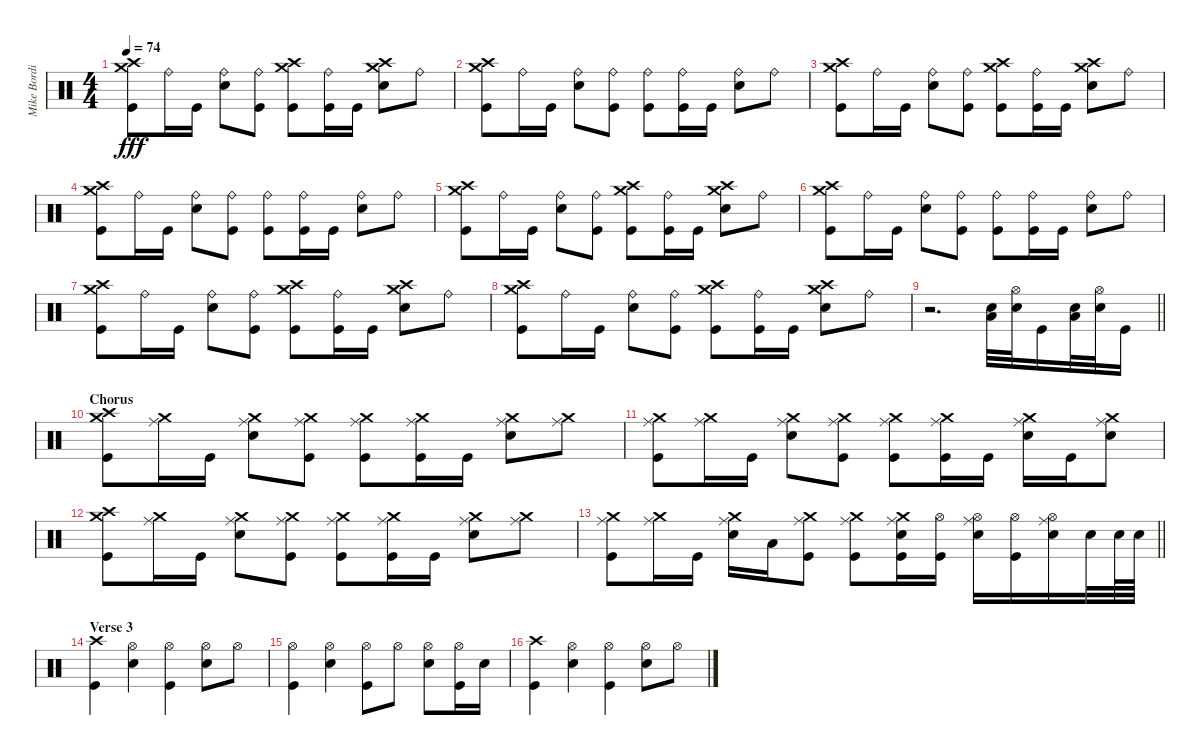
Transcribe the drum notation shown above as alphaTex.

\track ("Mike Bordin" "Mike Bordi") {instrument percussion}
\staff {score}
\articulation defaults
\ts (4 4)
\tempo 74
\clef neutral
\ks c
("Crash medium (hit)" "Crash high (hit)" "Kick (hit)").8{dy fff} "Ride (bell)".16 "Kick (hit)".16 ("Ride (bell)" "Snare (hit) 2").8 ("Ride (bell)" "Kick (hit)").8 ("Crash medium (hit)" "Crash high (hit)" "Kick (hit)").8 ("Ride (bell)" "Kick (hit)").16 "Kick (hit)".16 ("Crash medium (hit)" "Crash high (hit)" "Snare (hit) 2").8 "Ride (bell)".8 |
("Crash medium (hit)" "Crash high (hit)" "Kick (hit)").8 "Ride (bell)".16 "Kick (hit)".16 ("Ride (bell)" "Snare (hit) 2").8 ("Ride (bell)" "Kick (hit)").8 ("Ride (bell)" "Kick (hit)").8 ("Ride (bell)" "Kick (hit)").16 "Kick (hit)".16 ("Ride (bell)" "Snare (hit) 2").8 "Ride (bell)".8 |
("Crash medium (hit)" "Crash high (hit)" "Kick (hit)").8 "Ride (bell)".16 "Kick (hit)".16 ("Ride (bell)" "Snare (hit) 2").8 ("Ride (bell)" "Kick (hit)").8 ("Crash medium (hit)" "Crash high (hit)" "Kick (hit)").8 ("Ride (bell)" "Kick (hit)").16 "Kick (hit)".16 ("Crash medium (hit)" "Crash high (hit)" "Snare (hit) 2").8 "Ride (bell)".8 |
("Crash medium (hit)" "Crash high (hit)" "Kick (hit)").8 "Ride (bell)".16 "Kick (hit)".16 ("Ride (bell)" "Snare (hit) 2").8 ("Ride (bell)" "Kick (hit)").8 ("Ride (bell)" "Kick (hit)").8 ("Ride (bell)" "Kick (hit)").16 "Kick (hit)".16 ("Ride (bell)" "Snare (hit) 2").8 "Ride (bell)".8 |
("Crash medium (hit)" "Crash high (hit)" "Kick (hit)").8 "Ride (bell)".16 "Kick (hit)".16 ("Ride (bell)" "Snare (hit) 2").8 ("Ride (bell)" "Kick (hit)").8 ("Crash medium (hit)" "Crash high (hit)" "Kick (hit)").8 ("Ride (bell)" "Kick (hit)").16 "Kick (hit)".16 ("Crash medium (hit)" "Crash high (hit)" "Snare (hit) 2").8 "Ride (bell)".8 |
("Crash medium (hit)" "Crash high (hit)" "Kick (hit)").8 "Ride (bell)".16 "Kick (hit)".16 ("Ride (bell)" "Snare (hit) 2").8 ("Ride (bell)" "Kick (hit)").8 ("Ride (bell)" "Kick (hit)").8 ("Ride (bell)" "Kick (hit)").16 "Kick (hit)".16 ("Ride (bell)" "Snare (hit) 2").8 "Ride (bell)".8 |
("Crash medium (hit)" "Crash high (hit)" "Kick (hit)").8 "Ride (bell)".16 "Kick (hit)".16 ("Ride (bell)" "Snare (hit) 2").8 ("Ride (bell)" "Kick (hit)").8 ("Crash medium (hit)" "Crash high (hit)" "Kick (hit)").8 ("Ride (bell)" "Kick (hit)").16 "Kick (hit)".16 ("Crash medium (hit)" "Crash high (hit)" "Snare (hit) 2").8 "Ride (bell)".8 |
("Crash medium (hit)" "Crash high (hit)" "Kick (hit)").8 "Ride (bell)".16 "Kick (hit)".16 ("Ride (bell)" "Snare (hit) 2").8 ("Ride (bell)" "Kick (hit)").8 ("Crash medium (hit)" "Crash high (hit)" "Kick (hit)").8 ("Ride (bell)" "Kick (hit)").16 "Kick (hit)".16 ("Crash medium (hit)" "Crash high (hit)" "Snare (hit) 2").8 "Ride (bell)".8 |
\barLineRight lightlight
r.2{d} ("Snare (hit) 2" "Low Tom (hit)").32 ("Hi-Hat (open)" "Snare (hit) 2").32 "Kick (hit)".16 ("Snare (hit) 2" "Low Floor Tom (hit)").32 ("Hi-Hat (open)" "Snare (hit) 2").32 "Kick (hit)".16 |
\section ("" "Chorus")
("Crash medium (hit)" "Crash high (hit)" "Kick (hit)").8 ("Crash medium (hit)" "Ride (middle)").16 "Kick (hit)".16 ("Crash medium (hit)" "Ride (middle)" "Snare (hit) 2").8 ("Crash medium (hit)" "Ride (middle)" "Kick (hit)").8 ("Crash medium (hit)" "Ride (middle)" "Kick (hit)").8 ("Crash medium (hit)" "Ride (middle)" "Kick (hit)").16 "Kick (hit)".16 ("Crash medium (hit)" "Ride (middle)" "Snare (hit) 2").8 ("Crash medium (hit)" "Ride (middle)").8 |
("Crash medium (hit)" "Ride (middle)" "Kick (hit)").8 ("Crash medium (hit)" "Ride (middle)").16 "Kick (hit)".16 ("Crash medium (hit)" "Ride (middle)" "Snare (hit) 2").8 ("Crash medium (hit)" "Ride (middle)" "Kick (hit)").8 ("Crash medium (hit)" "Ride (middle)" "Kick (hit)").8 ("Crash medium (hit)" "Ride (middle)" "Kick (hit)").16 "Kick (hit)".16 ("Crash medium (hit)" "Ride (middle)" "Snare (hit) 2").16 "Kick (hit)".16 ("Crash medium (hit)" "Ride (middle)" "Snare (hit) 2").8 |
("Crash medium (hit)" "Crash high (hit)" "Kick (hit)").8 ("Crash medium (hit)" "Ride (middle)").16 "Kick (hit)".16 ("Crash medium (hit)" "Ride (middle)" "Snare (hit) 2").8 ("Crash medium (hit)" "Ride (middle)" "Kick (hit)").8 ("Crash medium (hit)" "Ride (middle)" "Kick (hit)").8 ("Crash medium (hit)" "Ride (middle)" "Kick (hit)").16 "Kick (hit)".16 ("Crash medium (hit)" "Ride (middle)" "Snare (hit) 2").8 ("Crash medium (hit)" "Ride (middle)").8 |
\barLineRight lightlight
("Crash medium (hit)" "Ride (middle)" "Kick (hit)").8 ("Crash medium (hit)" "Ride (middle)").16 "Kick (hit)".16 ("Crash medium (hit)" "Ride (middle)" "Snare (hit) 2").16 "Low Tom (hit)".16 ("Crash medium (hit)" "Ride (middle)" "Kick (hit)").8 ("Crash medium (hit)" "Ride (middle)" "Kick (hit)").8 ("Crash medium (hit)" "Ride (middle)" "Snare (hit) 2" "Kick (hit)").16 ("Hi-Hat (open)" "Kick (hit)").16 ("Hi-Hat (open)" "Ride (middle)" "Snare (hit) 2").16 ("Hi-Hat (open)" "Kick (hit)").16 ("Hi-Hat (open)" "Ride (middle)" "Snare (hit) 2").16 "Snare (hit) 2".32 "Snare (hit) 2".64 "Snare (hit) 2".64 |
\section ("" "Verse 3")
("Crash high (hit)" "Kick (hit)").4 ("Hi-Hat (open)" "Snare (hit) 2").4 ("Hi-Hat (open)" "Kick (hit)").4 ("Hi-Hat (open)" "Snare (hit) 2").8 "Hi-Hat (open)".8 |
("Hi-Hat (open)" "Kick (hit)").4 ("Hi-Hat (open)" "Snare (hit) 2").4 ("Hi-Hat (open)" "Kick (hit)").8 "Hi-Hat (open)".8 ("Hi-Hat (open)" "Snare (hit) 2").8 ("Hi-Hat (open)" "Kick (hit)").16 "Snare (hit) 2".16 |
("Crash high (hit)" "Kick (hit)").4 ("Hi-Hat (open)" "Snare (hit) 2").4 ("Hi-Hat (open)" "Kick (hit)").4 ("Hi-Hat (open)" "Snare (hit) 2").8 "Hi-Hat (open)".8
